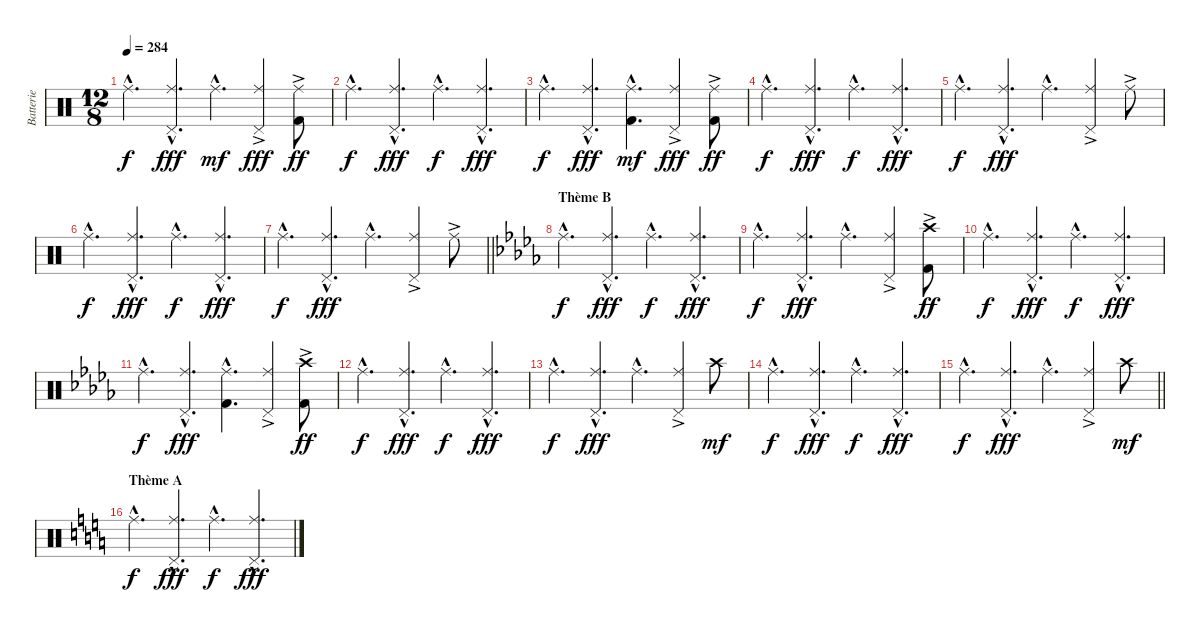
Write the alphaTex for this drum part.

\track ("Batterie" "Batterie") {instrument percussion}
\staff {score}
\articulation defaults
\ts (12 8)
\tempo 284
\clef neutral
\ks c "Ride (middle)"{hac}.4{d dy f}
("Ride (middle)"{hac} "Pedal Hi-Hat (hit)"{hac}).4{d dy fff} "Ride (middle)"{hac}.4{d dy mf} ("Ride (middle)" "Pedal Hi-Hat (hit)"{ac}).4{dy fff} ("Ride (middle)"{ac} "Kick (hit) 2"{ac}).8{dy ff} |
"Ride (middle)"{hac}.4{d dy f} ("Ride (middle)"{hac} "Pedal Hi-Hat (hit)"{hac}).4{d dy fff} "Ride (middle)"{hac}.4{d dy f} ("Ride (middle)"{hac} "Pedal Hi-Hat (hit)"{hac}).4{d dy fff} |
"Ride (middle)"{hac}.4{d dy f} ("Ride (middle)"{hac} "Pedal Hi-Hat (hit)"{hac}).4{d dy fff} ("Ride (middle)"{hac} "Kick (hit) 2"{hac}).4{d dy mf} ("Ride (middle)" "Pedal Hi-Hat (hit)"{ac}).4{dy fff} ("Ride (middle)"{ac} "Kick (hit) 2"{ac}).8{dy ff} |
"Ride (middle)"{hac}.4{d dy f} ("Ride (middle)"{hac} "Pedal Hi-Hat (hit)"{hac}).4{d dy fff} "Ride (middle)"{hac}.4{d dy f} ("Ride (middle)"{hac} "Pedal Hi-Hat (hit)"{hac}).4{d dy fff} |
"Ride (middle)"{hac}.4{d dy f} ("Ride (middle)"{hac} "Pedal Hi-Hat (hit)"{hac}).4{d dy fff} "Ride (middle)"{hac}.4{d} ("Ride (middle)" "Pedal Hi-Hat (hit)"{ac}).4 "Ride (middle)"{ac}.8 |
"Ride (middle)"{hac}.4{d dy f} ("Ride (middle)"{hac} "Pedal Hi-Hat (hit)"{hac}).4{d dy fff} "Ride (middle)"{hac}.4{d dy f} ("Ride (middle)"{hac} "Pedal Hi-Hat (hit)"{hac}).4{d dy fff} |
\barLineRight lightlight "Ride (middle)"{hac}.4{d dy f}
("Ride (middle)"{hac} "Pedal Hi-Hat (hit)"{hac}).4{d dy fff} "Ride (middle)"{hac}.4{d} ("Ride (middle)" "Pedal Hi-Hat (hit)"{ac}).4 "Ride (middle)"{ac}.8 |
\section ("" "Thème B")
\ks db "Ride (middle)"{hac}.4{d dy f volume 13 balance 8}
("Ride (middle)"{hac} "Pedal Hi-Hat (hit)"{hac}).4{d dy fff} "Ride (middle)"{hac}.4{d dy f} ("Ride (middle)"{hac} "Pedal Hi-Hat (hit)"{hac}).4{d dy fff} |
"Ride (middle)"{hac}.4{d dy f} ("Ride (middle)"{hac} "Pedal Hi-Hat (hit)"{hac}).4{d dy fff} "Ride (middle)"{hac}.4{d} ("Ride (middle)" "Pedal Hi-Hat (hit)"{ac}).4 ("Crash high (hit)" "Kick (hit) 2"{ac}).8{dy ff} |
"Ride (middle)"{hac}.4{d dy f} ("Ride (middle)"{hac} "Pedal Hi-Hat (hit)"{hac}).4{d dy fff} "Ride (middle)"{hac}.4{d dy f} ("Ride (middle)"{hac} "Pedal Hi-Hat (hit)"{hac}).4{d dy fff} |
"Ride (middle)"{hac}.4{d dy f} ("Ride (middle)"{hac} "Pedal Hi-Hat (hit)"{hac}).4{d dy fff} ("Ride (middle)"{hac} "Kick (hit) 2"{hac}).4{d} ("Ride (middle)" "Pedal Hi-Hat (hit)"{ac}).4 ("Crash high (hit)" "Kick (hit) 2"{ac}).8{dy ff} |
"Ride (middle)"{hac}.4{d dy f} ("Ride (middle)"{hac} "Pedal Hi-Hat (hit)"{hac}).4{d dy fff} "Ride (middle)"{hac}.4{d dy f} ("Ride (middle)"{hac} "Pedal Hi-Hat (hit)"{hac}).4{d dy fff} |
"Ride (middle)"{hac}.4{d dy f} ("Ride (middle)"{hac} "Pedal Hi-Hat (hit)"{hac}).4{d dy fff} "Ride (middle)"{hac}.4{d} ("Ride (middle)" "Pedal Hi-Hat (hit)"{ac}).4 "Crash high (hit)".8{dy mf} |
"Ride (middle)"{hac}.4{d dy f} ("Ride (middle)"{hac} "Pedal Hi-Hat (hit)"{hac}).4{d dy fff} "Ride (middle)"{hac}.4{d dy f} ("Ride (middle)"{hac} "Pedal Hi-Hat (hit)"{hac}).4{d dy fff} |
\barLineRight lightlight "Ride (middle)"{hac}.4{d dy f}
("Ride (middle)"{hac} "Pedal Hi-Hat (hit)"{hac}).4{d dy fff} "Ride (middle)"{hac}.4{d} ("Ride (middle)" "Pedal Hi-Hat (hit)"{ac}).4 "Crash high (hit)".8{dy mf} |
\section ("" "Thème A")
\ks c "Ride (middle)"{hac}.4{d dy f volume 12 balance 8}
("Ride (middle)"{hac} "Pedal Hi-Hat (hit)"{hac}).4{d dy fff} "Ride (middle)"{hac}.4{d dy f} ("Ride (middle)"{hac} "Pedal Hi-Hat (hit)"{hac}).4{d dy fff}
